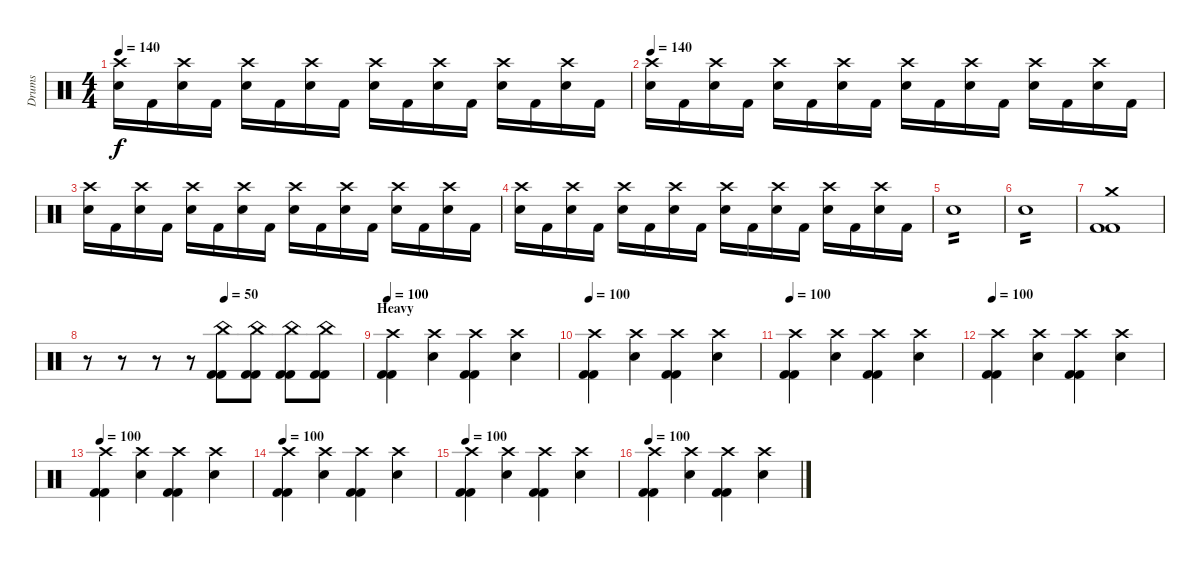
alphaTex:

\track ("Drums" "Drums") {instrument percussion}
\staff {score}
\articulation defaults
\ts (4 4)
\tempo 140
\clef neutral
\ks c
("Crash high (hit)" "Electric Snare (hit)").16{dy f} "Kick (hit) 2".16 ("Electric Snare (hit)" "Crash high (hit)").16 "Kick (hit) 2".16 ("Crash high (hit)" "Electric Snare (hit)").16 "Kick (hit) 2".16 ("Electric Snare (hit)" "Crash high (hit)").16 "Kick (hit) 2".16 ("Electric Snare (hit)" "Crash high (hit)").16 "Kick (hit) 2".16 ("Crash high (hit)" "Electric Snare (hit)").16 "Kick (hit) 2".16 ("Electric Snare (hit)" "Crash high (hit)").16 "Kick (hit) 2".16 ("Electric Snare (hit)" "Crash high (hit)").16 "Kick (hit) 2".16 |
\tempo 140
("Crash high (hit)" "Electric Snare (hit)").16 "Kick (hit) 2".16 ("Electric Snare (hit)" "Crash high (hit)").16 "Kick (hit) 2".16 ("Crash high (hit)" "Electric Snare (hit)").16 "Kick (hit) 2".16 ("Electric Snare (hit)" "Crash high (hit)").16 "Kick (hit) 2".16 ("Electric Snare (hit)" "Crash high (hit)").16 "Kick (hit) 2".16 ("Crash high (hit)" "Electric Snare (hit)").16 "Kick (hit) 2".16 ("Electric Snare (hit)" "Crash high (hit)").16 "Kick (hit) 2".16 ("Electric Snare (hit)" "Crash high (hit)").16 "Kick (hit) 2".16 |
("Crash high (hit)" "Electric Snare (hit)").16 "Kick (hit) 2".16 ("Electric Snare (hit)" "Crash high (hit)").16 "Kick (hit) 2".16 ("Crash high (hit)" "Electric Snare (hit)").16 "Kick (hit) 2".16 ("Electric Snare (hit)" "Crash high (hit)").16 "Kick (hit) 2".16 ("Electric Snare (hit)" "Crash high (hit)").16 "Kick (hit) 2".16 ("Crash high (hit)" "Electric Snare (hit)").16 "Kick (hit) 2".16 ("Electric Snare (hit)" "Crash high (hit)").16 "Kick (hit) 2".16 ("Electric Snare (hit)" "Crash high (hit)").16 "Kick (hit) 2".16 |
("Crash high (hit)" "Electric Snare (hit)").16 "Kick (hit) 2".16 ("Electric Snare (hit)" "Crash high (hit)").16 "Kick (hit) 2".16 ("Crash high (hit)" "Electric Snare (hit)").16 "Kick (hit) 2".16 ("Electric Snare (hit)" "Crash high (hit)").16 "Kick (hit) 2".16 ("Electric Snare (hit)" "Crash high (hit)").16 "Kick (hit) 2".16 ("Crash high (hit)" "Electric Snare (hit)").16 "Kick (hit) 2".16 ("Electric Snare (hit)" "Crash high (hit)").16 "Kick (hit) 2".16 ("Electric Snare (hit)" "Crash high (hit)").16 "Kick (hit) 2".16 |
"Electric Snare (hit)".1{tp 2} |
"Electric Snare (hit)".1{tp 2} |
("Crash medium (hit)" "Kick (hit) 2" "Kick (hit) 2").1 |
\tempo (50 0.5)
r.8 r.8 r.8 r.8 ("Kick (hit) 2" "Kick (hit) 2" "China (hit)").8 ("China (hit)" "Kick (hit) 2" "Kick (hit) 2").8 ("Kick (hit) 2" "Kick (hit) 2" "China (hit)").8 ("China (hit)" "Kick (hit) 2" "Kick (hit) 2").8 |
\section ("" "Heavy")
\tempo 100
("Crash high (hit)" "Kick (hit) 2" "Kick (hit) 2").4 ("Electric Snare (hit)" "Crash high (hit)").4 ("Kick (hit) 2" "Kick (hit) 2" "Crash high (hit)").4 ("Crash high (hit)" "Electric Snare (hit)").4 |
\tempo 100
("Crash high (hit)" "Kick (hit) 2" "Kick (hit) 2").4 ("Electric Snare (hit)" "Crash high (hit)").4 ("Kick (hit) 2" "Kick (hit) 2" "Crash high (hit)").4 ("Crash high (hit)" "Electric Snare (hit)").4 |
\tempo 100
("Crash high (hit)" "Kick (hit) 2" "Kick (hit) 2").4 ("Electric Snare (hit)" "Crash high (hit)").4 ("Kick (hit) 2" "Kick (hit) 2" "Crash high (hit)").4 ("Crash high (hit)" "Electric Snare (hit)").4 |
\tempo 100
("Crash high (hit)" "Kick (hit) 2" "Kick (hit) 2").4 ("Electric Snare (hit)" "Crash high (hit)").4 ("Kick (hit) 2" "Kick (hit) 2" "Crash high (hit)").4 ("Crash high (hit)" "Electric Snare (hit)").4 |
\tempo 100
("Crash high (hit)" "Kick (hit) 2" "Kick (hit) 2").4 ("Electric Snare (hit)" "Crash high (hit)").4 ("Kick (hit) 2" "Kick (hit) 2" "Crash high (hit)").4 ("Crash high (hit)" "Electric Snare (hit)").4 |
\tempo 100
("Crash high (hit)" "Kick (hit) 2" "Kick (hit) 2").4 ("Electric Snare (hit)" "Crash high (hit)").4 ("Kick (hit) 2" "Kick (hit) 2" "Crash high (hit)").4 ("Crash high (hit)" "Electric Snare (hit)").4 |
\tempo 100
("Crash high (hit)" "Kick (hit) 2" "Kick (hit) 2").4 ("Electric Snare (hit)" "Crash high (hit)").4 ("Kick (hit) 2" "Kick (hit) 2" "Crash high (hit)").4 ("Crash high (hit)" "Electric Snare (hit)").4 |
\tempo 100
("Crash high (hit)" "Kick (hit) 2" "Kick (hit) 2").4 ("Electric Snare (hit)" "Crash high (hit)").4 ("Kick (hit) 2" "Kick (hit) 2" "Crash high (hit)").4 ("Crash high (hit)" "Electric Snare (hit)").4
